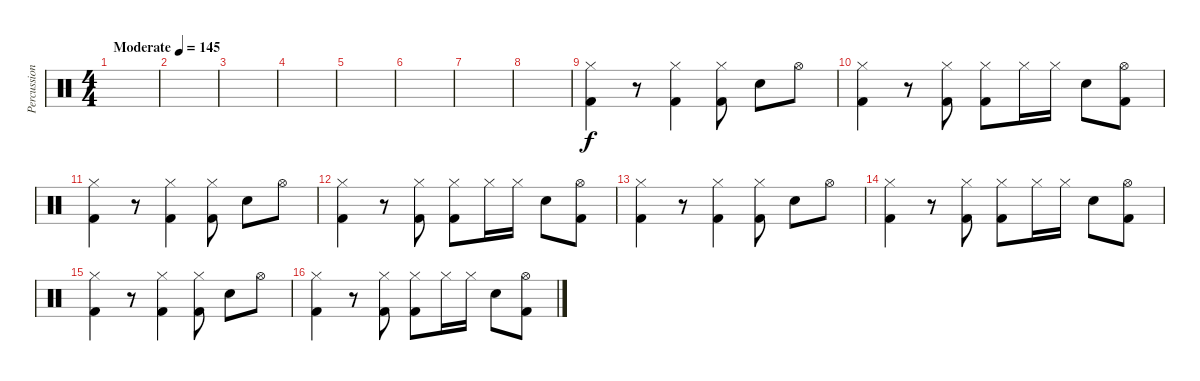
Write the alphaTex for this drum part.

\track ("Percussion" "Percussion") {instrument percussion}
\staff {score}
\articulation defaults
\ts (4 4)
\tempo (145 "Moderate")
\clef neutral
\ks c
|
|
|
|
|
|
|
|
("Hi-Hat (closed)" "Kick (hit) 2").4 r.8 ("Hi-Hat (closed)" "Kick (hit) 2").4 ("Hi-Hat (closed)" "Kick (hit) 2").8 "Hand Clap (hit)".8 "Hi-Hat (open)".8 |
("Hi-Hat (closed)" "Kick (hit) 2").4 r.8 ("Hi-Hat (closed)" "Kick (hit) 2").8 ("Hi-Hat (closed)" "Kick (hit) 2").8 "Hi-Hat (closed)".16 "Hi-Hat (closed)".16 "Hand Clap (hit)".8 ("Hi-Hat (open)" "Kick (hit) 2").8 |
("Hi-Hat (closed)" "Kick (hit) 2").4 r.8 ("Hi-Hat (closed)" "Kick (hit) 2").4 ("Hi-Hat (closed)" "Kick (hit) 2").8 "Hand Clap (hit)".8 "Hi-Hat (open)".8 |
("Hi-Hat (closed)" "Kick (hit) 2").4 r.8 ("Hi-Hat (closed)" "Kick (hit) 2").8 ("Hi-Hat (closed)" "Kick (hit) 2").8 "Hi-Hat (closed)".16 "Hi-Hat (closed)".16 "Hand Clap (hit)".8 ("Hi-Hat (open)" "Kick (hit) 2").8 |
("Hi-Hat (closed)" "Kick (hit) 2").4 r.8 ("Hi-Hat (closed)" "Kick (hit) 2").4 ("Hi-Hat (closed)" "Kick (hit) 2").8 "Hand Clap (hit)".8 "Hi-Hat (open)".8 |
("Hi-Hat (closed)" "Kick (hit) 2").4 r.8 ("Hi-Hat (closed)" "Kick (hit) 2").8 ("Hi-Hat (closed)" "Kick (hit) 2").8 "Hi-Hat (closed)".16 "Hi-Hat (closed)".16 "Hand Clap (hit)".8 ("Hi-Hat (open)" "Kick (hit) 2").8 |
("Hi-Hat (closed)" "Kick (hit) 2").4 r.8 ("Hi-Hat (closed)" "Kick (hit) 2").4 ("Hi-Hat (closed)" "Kick (hit) 2").8 "Hand Clap (hit)".8 "Hi-Hat (open)".8 |
("Hi-Hat (closed)" "Kick (hit) 2").4 r.8 ("Hi-Hat (closed)" "Kick (hit) 2").8 ("Hi-Hat (closed)" "Kick (hit) 2").8 "Hi-Hat (closed)".16 "Hi-Hat (closed)".16 "Hand Clap (hit)".8 ("Hi-Hat (open)" "Kick (hit) 2").8
